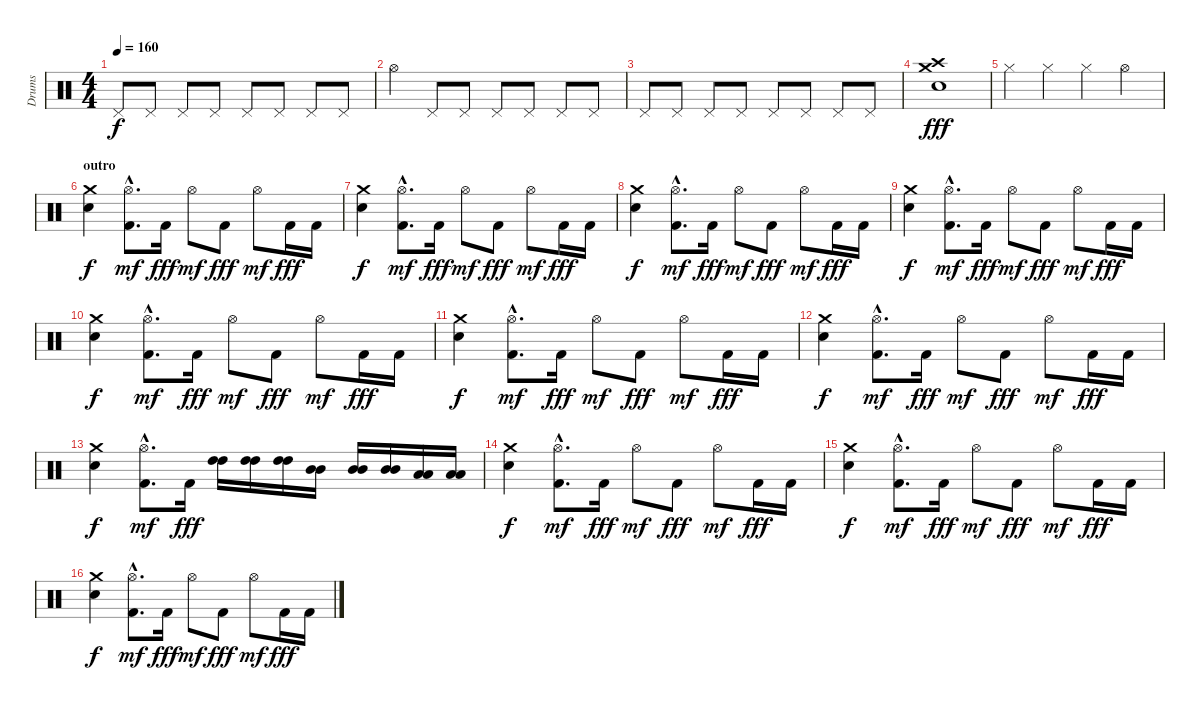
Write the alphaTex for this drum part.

\track ("Drums" "Drums") {instrument percussion}
\staff {score}
\articulation defaults
\ts (4 4)
\tempo 160
\clef neutral
\ks c "Pedal Hi-Hat (hit)".8{dy f} "Pedal Hi-Hat (hit)".8 "Pedal Hi-Hat (hit)".8 "Pedal Hi-Hat (hit)".8 "Pedal Hi-Hat (hit)".8 "Pedal Hi-Hat (hit)".8 "Pedal Hi-Hat (hit)".8 "Pedal Hi-Hat (hit)".8
|
"Hi-Hat (open)".4 "Pedal Hi-Hat (hit)".8 "Pedal Hi-Hat (hit)".8 "Pedal Hi-Hat (hit)".8 "Pedal Hi-Hat (hit)".8 "Pedal Hi-Hat (hit)".8 "Pedal Hi-Hat (hit)".8 |
"Pedal Hi-Hat (hit)".8 "Pedal Hi-Hat (hit)".8 "Pedal Hi-Hat (hit)".8 "Pedal Hi-Hat (hit)".8 "Pedal Hi-Hat (hit)".8 "Pedal Hi-Hat (hit)".8 "Pedal Hi-Hat (hit)".8 "Pedal Hi-Hat (hit)".8 |
("Crash high (hit)" "Crash medium (hit)" "Electric Snare (hit)").1{dy fff} |
"Hi-Hat (closed)".4 "Hi-Hat (closed)".4 "Hi-Hat (closed)".4 "Hi-Hat (open)".4 |
\section ("" "outro")
("Crash medium (hit)" "Electric Snare (hit)").4{dy f} ("Kick (hit) 2"{hac} "Hi-Hat (open)"{hac}).8{d dy mf} "Kick (hit) 2".16{dy fff} "Hi-Hat (open)".8{dy mf} "Kick (hit) 2".8{dy fff} "Hi-Hat (open)".8{dy mf} "Kick (hit) 2".16{dy fff} "Kick (hit) 2".16 |
("Crash medium (hit)" "Electric Snare (hit)").4{dy f} ("Kick (hit) 2"{hac} "Hi-Hat (open)"{hac}).8{d dy mf} "Kick (hit) 2".16{dy fff} "Hi-Hat (open)".8{dy mf} "Kick (hit) 2".8{dy fff} "Hi-Hat (open)".8{dy mf} "Kick (hit) 2".16{dy fff} "Kick (hit) 2".16 |
("Crash medium (hit)" "Electric Snare (hit)").4{dy f} ("Kick (hit) 2"{hac} "Hi-Hat (open)"{hac}).8{d dy mf} "Kick (hit) 2".16{dy fff} "Hi-Hat (open)".8{dy mf} "Kick (hit) 2".8{dy fff} "Hi-Hat (open)".8{dy mf} "Kick (hit) 2".16{dy fff} "Kick (hit) 2".16 |
("Crash medium (hit)" "Electric Snare (hit)").4{dy f} ("Kick (hit) 2"{hac} "Hi-Hat (open)"{hac}).8{d dy mf} "Kick (hit) 2".16{dy fff} "Hi-Hat (open)".8{dy mf} "Kick (hit) 2".8{dy fff} "Hi-Hat (open)".8{dy mf} "Kick (hit) 2".16{dy fff} "Kick (hit) 2".16 |
("Crash medium (hit)" "Electric Snare (hit)").4{dy f} ("Kick (hit) 2"{hac} "Hi-Hat (open)"{hac}).8{d dy mf} "Kick (hit) 2".16{dy fff} "Hi-Hat (open)".8{dy mf} "Kick (hit) 2".8{dy fff} "Hi-Hat (open)".8{dy mf} "Kick (hit) 2".16{dy fff} "Kick (hit) 2".16 |
("Crash medium (hit)" "Electric Snare (hit)").4{dy f} ("Kick (hit) 2"{hac} "Hi-Hat (open)"{hac}).8{d dy mf} "Kick (hit) 2".16{dy fff} "Hi-Hat (open)".8{dy mf} "Kick (hit) 2".8{dy fff} "Hi-Hat (open)".8{dy mf} "Kick (hit) 2".16{dy fff} "Kick (hit) 2".16 |
("Crash medium (hit)" "Electric Snare (hit)").4{dy f} ("Kick (hit) 2"{hac} "Hi-Hat (open)"{hac}).8{d dy mf} "Kick (hit) 2".16{dy fff} "Hi-Hat (open)".8{dy mf} "Kick (hit) 2".8{dy fff} "Hi-Hat (open)".8{dy mf} "Kick (hit) 2".16{dy fff} "Kick (hit) 2".16 |
("Crash medium (hit)" "Electric Snare (hit)").4{dy f} ("Kick (hit) 2"{hac} "Hi-Hat (open)"{hac}).8{d dy mf} "Kick (hit) 2".16{dy fff} ("High Tom (hit)" "High Tom (hit)").16 ("High Tom (hit)" "High Tom (hit)").16 ("High Tom (hit)" "High Tom (hit)").16 ("Mid Tom (hit)" "Mid Tom (hit)").16 ("Mid Tom (hit)" "Mid Tom (hit)").16 ("Mid Tom (hit)" "Mid Tom (hit)").16 ("Low Tom (hit)" "Low Tom (hit)").16 ("Low Tom (hit)" "Low Tom (hit)").16 |
("Crash medium (hit)" "Electric Snare (hit)").4{dy f} ("Kick (hit) 2"{hac} "Hi-Hat (open)"{hac}).8{d dy mf} "Kick (hit) 2".16{dy fff} "Hi-Hat (open)".8{dy mf} "Kick (hit) 2".8{dy fff} "Hi-Hat (open)".8{dy mf} "Kick (hit) 2".16{dy fff} "Kick (hit) 2".16 |
("Crash medium (hit)" "Electric Snare (hit)").4{dy f} ("Kick (hit) 2"{hac} "Hi-Hat (open)"{hac}).8{d dy mf} "Kick (hit) 2".16{dy fff} "Hi-Hat (open)".8{dy mf} "Kick (hit) 2".8{dy fff} "Hi-Hat (open)".8{dy mf} "Kick (hit) 2".16{dy fff} "Kick (hit) 2".16 |
("Crash medium (hit)" "Electric Snare (hit)").4{dy f} ("Kick (hit) 2"{hac} "Hi-Hat (open)"{hac}).8{d dy mf} "Kick (hit) 2".16{dy fff} "Hi-Hat (open)".8{dy mf} "Kick (hit) 2".8{dy fff} "Hi-Hat (open)".8{dy mf} "Kick (hit) 2".16{dy fff} "Kick (hit) 2".16
